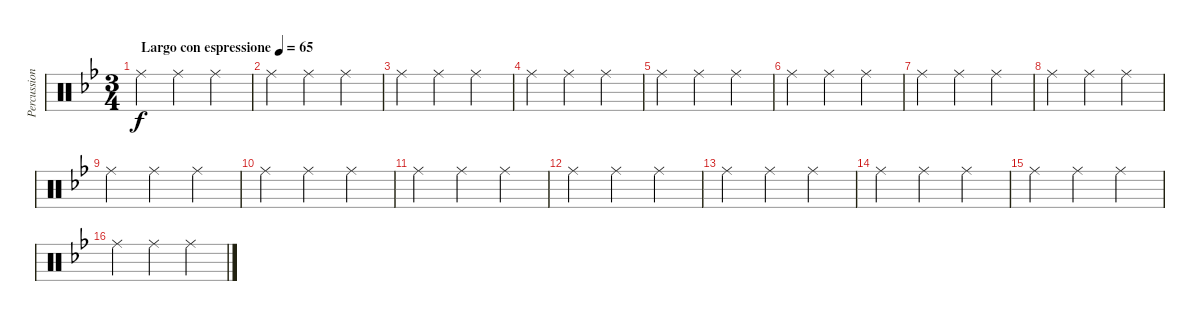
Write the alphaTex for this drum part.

\track ("Percussion" "Percussion") {instrument percussion}
\staff {score}
\articulation defaults
\ts (3 4)
\tempo (65 "Largo con espressione")
\clef neutral
\ks gminor "Ride (middle)".4{dy f} "Ride (middle)".4 "Ride (middle)".4
|
"Ride (middle)".4 "Ride (middle)".4 "Ride (middle)".4 |
"Ride (middle)".4 "Ride (middle)".4 "Ride (middle)".4 |
"Ride (middle)".4 "Ride (middle)".4 "Ride (middle)".4 |
"Ride (middle)".4 "Ride (middle)".4 "Ride (middle)".4 |
"Ride (middle)".4 "Ride (middle)".4 "Ride (middle)".4 |
"Ride (middle)".4 "Ride (middle)".4 "Ride (middle)".4 |
"Ride (middle)".4 "Ride (middle)".4 "Ride (middle)".4 |
"Ride (middle)".4 "Ride (middle)".4 "Ride (middle)".4 |
"Ride (middle)".4 "Ride (middle)".4 "Ride (middle)".4 |
"Ride (middle)".4 "Ride (middle)".4 "Ride (middle)".4 |
"Ride (middle)".4 "Ride (middle)".4 "Ride (middle)".4 |
"Ride (middle)".4 "Ride (middle)".4 "Ride (middle)".4 |
"Ride (middle)".4 "Ride (middle)".4 "Ride (middle)".4 |
"Ride (middle)".4 "Ride (middle)".4 "Ride (middle)".4 |
"Ride (middle)".4 "Ride (middle)".4 "Ride (middle)".4
